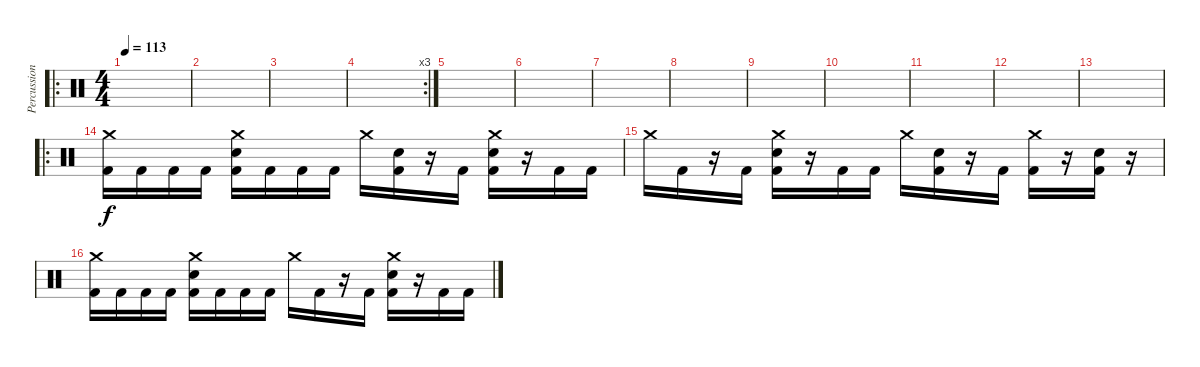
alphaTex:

\track ("Percussion" "Percussion") {instrument percussion}
\staff {score}
\articulation defaults
\ro
\ts (4 4)
\tempo 113
\clef neutral
\ks c
|
|
|
\rc 3
|
|
|
|
|
|
|
|
|
|
\ro
("Crash medium (hit)" "Kick (hit) 2").16 "Kick (hit) 2".16 "Kick (hit) 2".16 "Kick (hit) 2".16 ("Crash medium (hit)" "Electric Snare (hit)" "Kick (hit) 2").16 "Kick (hit) 2".16 "Kick (hit) 2".16 "Kick (hit) 2".16 "Crash medium (hit)".16 ("Electric Snare (hit)" "Kick (hit) 2").16 r.16 "Kick (hit) 2".16 ("Crash medium (hit)" "Electric Snare (hit)" "Kick (hit) 2").16 r.16 "Kick (hit) 2".16 "Kick (hit) 2".16 |
"Crash medium (hit)".16 "Kick (hit) 2".16 r.16 "Kick (hit) 2".16 ("Crash medium (hit)" "Electric Snare (hit)" "Kick (hit) 2").16 r.16 "Kick (hit) 2".16 "Kick (hit) 2".16 "Crash medium (hit)".16 ("Electric Snare (hit)" "Kick (hit) 2").16 r.16 "Kick (hit) 2".16 ("Crash medium (hit)" "Kick (hit) 2").16 r.16 ("Electric Snare (hit)" "Kick (hit) 2").16 r.16 |
("Crash medium (hit)" "Kick (hit) 2").16 "Kick (hit) 2".16 "Kick (hit) 2".16 "Kick (hit) 2".16 ("Crash medium (hit)" "Electric Snare (hit)" "Kick (hit) 2").16 "Kick (hit) 2".16 "Kick (hit) 2".16 "Kick (hit) 2".16 "Crash medium (hit)".16 "Kick (hit) 2".16 r.16 "Kick (hit) 2".16 ("Crash medium (hit)" "Electric Snare (hit)" "Kick (hit) 2").16 r.16 "Kick (hit) 2".16 "Kick (hit) 2".16
